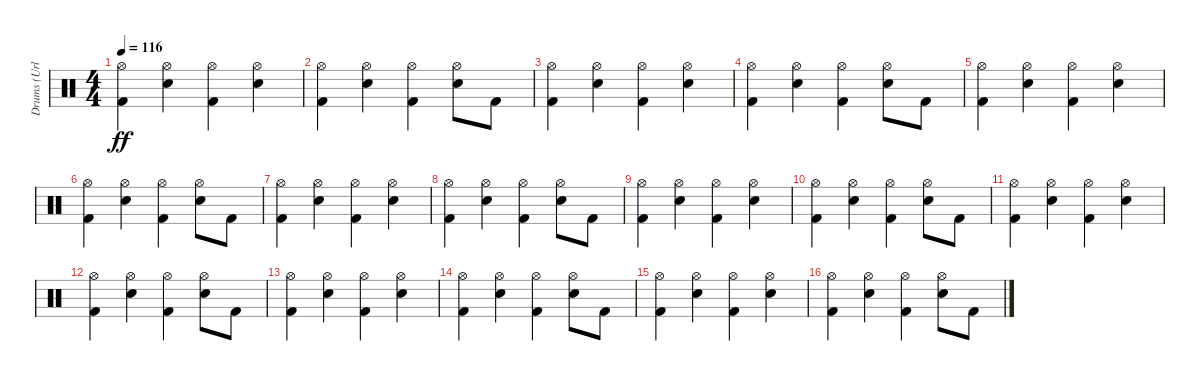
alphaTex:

\track ("Drums (Urlich)" "Drums (Url") {instrument percussion}
\staff {score}
\articulation defaults
\ts (4 4)
\tempo 116
\clef neutral
\ks c
("Kick (hit) 2" "Hi-Hat (open)").4{dy ff} ("Snare (hit) 2" "Hi-Hat (open)").4 ("Kick (hit) 2" "Hi-Hat (open)").4 ("Snare (hit) 2" "Hi-Hat (open)").4 |
("Kick (hit) 2" "Hi-Hat (open)").4 ("Snare (hit) 2" "Hi-Hat (open)").4 ("Kick (hit) 2" "Hi-Hat (open)").4 ("Snare (hit) 2" "Hi-Hat (open)").8 "Kick (hit) 2".8 |
("Kick (hit) 2" "Hi-Hat (open)").4 ("Snare (hit) 2" "Hi-Hat (open)").4 ("Kick (hit) 2" "Hi-Hat (open)").4 ("Snare (hit) 2" "Hi-Hat (open)").4 |
("Kick (hit) 2" "Hi-Hat (open)").4 ("Snare (hit) 2" "Hi-Hat (open)").4 ("Kick (hit) 2" "Hi-Hat (open)").4 ("Snare (hit) 2" "Hi-Hat (open)").8 "Kick (hit) 2".8 |
("Kick (hit) 2" "Hi-Hat (open)").4 ("Snare (hit) 2" "Hi-Hat (open)").4 ("Kick (hit) 2" "Hi-Hat (open)").4 ("Snare (hit) 2" "Hi-Hat (open)").4 |
("Kick (hit) 2" "Hi-Hat (open)").4 ("Snare (hit) 2" "Hi-Hat (open)").4 ("Kick (hit) 2" "Hi-Hat (open)").4 ("Snare (hit) 2" "Hi-Hat (open)").8 "Kick (hit) 2".8 |
("Kick (hit) 2" "Hi-Hat (open)").4 ("Snare (hit) 2" "Hi-Hat (open)").4 ("Kick (hit) 2" "Hi-Hat (open)").4 ("Snare (hit) 2" "Hi-Hat (open)").4 |
("Kick (hit) 2" "Hi-Hat (open)").4 ("Snare (hit) 2" "Hi-Hat (open)").4 ("Kick (hit) 2" "Hi-Hat (open)").4 ("Snare (hit) 2" "Hi-Hat (open)").8 "Kick (hit) 2".8 |
("Kick (hit) 2" "Hi-Hat (open)").4 ("Snare (hit) 2" "Hi-Hat (open)").4 ("Kick (hit) 2" "Hi-Hat (open)").4 ("Snare (hit) 2" "Hi-Hat (open)").4 |
("Kick (hit) 2" "Hi-Hat (open)").4 ("Snare (hit) 2" "Hi-Hat (open)").4 ("Kick (hit) 2" "Hi-Hat (open)").4 ("Snare (hit) 2" "Hi-Hat (open)").8 "Kick (hit) 2".8 |
("Kick (hit) 2" "Hi-Hat (open)").4 ("Snare (hit) 2" "Hi-Hat (open)").4 ("Kick (hit) 2" "Hi-Hat (open)").4 ("Snare (hit) 2" "Hi-Hat (open)").4 |
("Kick (hit) 2" "Hi-Hat (open)").4 ("Snare (hit) 2" "Hi-Hat (open)").4 ("Kick (hit) 2" "Hi-Hat (open)").4 ("Snare (hit) 2" "Hi-Hat (open)").8 "Kick (hit) 2".8 |
("Kick (hit) 2" "Hi-Hat (open)").4 ("Snare (hit) 2" "Hi-Hat (open)").4 ("Kick (hit) 2" "Hi-Hat (open)").4 ("Snare (hit) 2" "Hi-Hat (open)").4 |
("Kick (hit) 2" "Hi-Hat (open)").4 ("Snare (hit) 2" "Hi-Hat (open)").4 ("Kick (hit) 2" "Hi-Hat (open)").4 ("Snare (hit) 2" "Hi-Hat (open)").8 "Kick (hit) 2".8 |
("Kick (hit) 2" "Hi-Hat (open)").4 ("Snare (hit) 2" "Hi-Hat (open)").4 ("Kick (hit) 2" "Hi-Hat (open)").4 ("Snare (hit) 2" "Hi-Hat (open)").4 |
("Kick (hit) 2" "Hi-Hat (open)").4 ("Snare (hit) 2" "Hi-Hat (open)").4 ("Kick (hit) 2" "Hi-Hat (open)").4 ("Snare (hit) 2" "Hi-Hat (open)").8 "Kick (hit) 2".8
